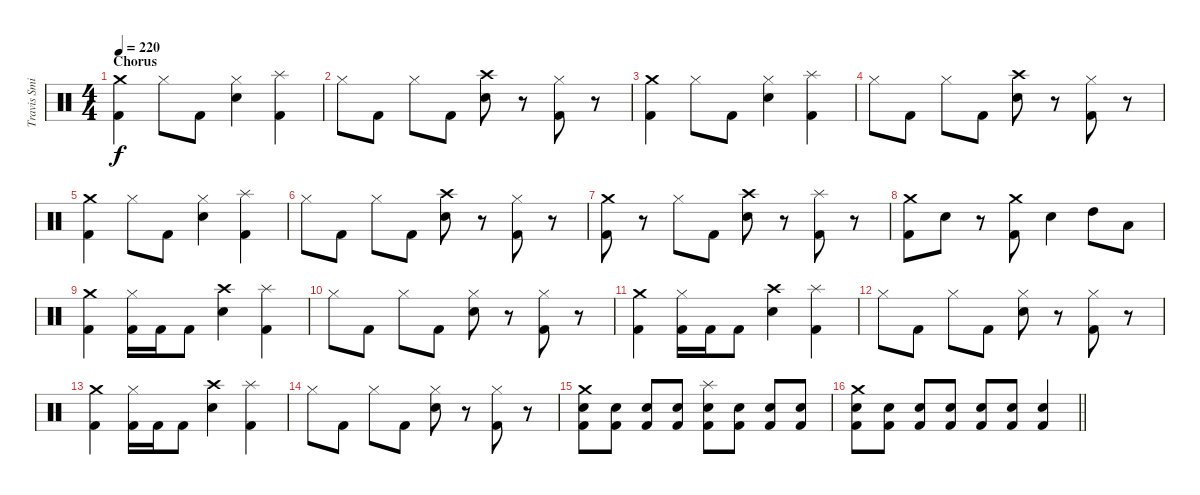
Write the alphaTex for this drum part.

\track ("Travis Smith" "Travis Smi") {instrument percussion}
\staff {score}
\articulation defaults
\ts (4 4)
\section ("" "Chorus")
\tempo 220
\clef neutral
\ks c
("Crash medium (hit)" "Kick (hit) 2").4{dy f} "Hi-Hat (closed)".8 "Kick (hit) 2".8 ("Hi-Hat (closed)" "Electric Snare (hit)").4 ("Splash (hit)" "Kick (hit) 2").4 |
"Hi-Hat (closed)".8 "Kick (hit) 2".8 "Hi-Hat (closed)".8 "Kick (hit) 2".8 ("Crash high (hit)" "Electric Snare (hit)").8 r.8 ("Hi-Hat (closed)" "Kick (hit) 2").8 r.8 |
("Crash medium (hit)" "Kick (hit) 2").4 "Hi-Hat (closed)".8 "Kick (hit) 2".8 ("Hi-Hat (closed)" "Electric Snare (hit)").4 ("Splash (hit)" "Kick (hit) 2").4 |
"Hi-Hat (closed)".8 "Kick (hit) 2".8 "Hi-Hat (closed)".8 "Kick (hit) 2".8 ("Crash high (hit)" "Electric Snare (hit)").8 r.8 ("Hi-Hat (closed)" "Kick (hit) 2").8 r.8 |
("Crash medium (hit)" "Kick (hit) 2").4 "Hi-Hat (closed)".8 "Kick (hit) 2".8 ("Hi-Hat (closed)" "Electric Snare (hit)").4 ("Splash (hit)" "Kick (hit) 2").4 |
"Hi-Hat (closed)".8 "Kick (hit) 2".8 "Hi-Hat (closed)".8 "Kick (hit) 2".8 ("Crash high (hit)" "Electric Snare (hit)").8 r.8 ("Hi-Hat (closed)" "Kick (hit) 2").8 r.8 |
("Crash medium (hit)" "Kick (hit) 2").8 r.8 "Hi-Hat (closed)".8 "Kick (hit) 2".8 ("Crash high (hit)" "Electric Snare (hit)").8 r.8 ("Splash (hit)" "Kick (hit) 2").8 r.8 |
("Crash medium (hit)" "Kick (hit) 2").8 "Electric Snare (hit)".8 r.8 ("Crash medium (hit)" "Kick (hit) 2").8 "Electric Snare (hit)".4 "High Tom (hit)".8 "Low Tom (hit)".8 |
("Crash medium (hit)" "Kick (hit) 2").4 ("Hi-Hat (closed)" "Kick (hit) 2").16 "Kick (hit) 2".16 "Kick (hit) 2".8 ("Crash high (hit)" "Electric Snare (hit)").4 ("Splash (hit)" "Kick (hit) 2").4 |
"Hi-Hat (closed)".8 "Kick (hit) 2".8 "Hi-Hat (closed)".8 "Kick (hit) 2".8 ("Hi-Hat (closed)" "Electric Snare (hit)").8 r.8 ("Hi-Hat (closed)" "Kick (hit) 2").8 r.8 |
("Crash medium (hit)" "Kick (hit) 2").4 ("Hi-Hat (closed)" "Kick (hit) 2").16 "Kick (hit) 2".16 "Kick (hit) 2".8 ("Crash high (hit)" "Electric Snare (hit)").4 ("Splash (hit)" "Kick (hit) 2").4 |
"Hi-Hat (closed)".8 "Kick (hit) 2".8 "Hi-Hat (closed)".8 "Kick (hit) 2".8 ("Hi-Hat (closed)" "Electric Snare (hit)").8 r.8 ("Hi-Hat (closed)" "Kick (hit) 2").8 r.8 |
("Crash medium (hit)" "Kick (hit) 2").4 ("Hi-Hat (closed)" "Kick (hit) 2").16 "Kick (hit) 2".16 "Kick (hit) 2".8 ("Crash high (hit)" "Electric Snare (hit)").4 ("Splash (hit)" "Kick (hit) 2").4 |
"Hi-Hat (closed)".8 "Kick (hit) 2".8 "Hi-Hat (closed)".8 "Kick (hit) 2".8 ("Hi-Hat (closed)" "Electric Snare (hit)").8 r.8 ("Hi-Hat (closed)" "Kick (hit) 2").8 r.8 |
("Crash medium (hit)" "Snare (hit) 2" "Kick (hit) 2").8 ("Snare (hit) 2" "Kick (hit) 2").8 ("Snare (hit) 2" "Kick (hit) 2").8 ("Snare (hit) 2" "Kick (hit) 2").8 ("Splash (hit)" "Electric Snare (hit)" "Kick (hit) 2").8 ("Electric Snare (hit)" "Kick (hit) 2").8 ("Electric Snare (hit)" "Kick (hit) 2").8 ("Electric Snare (hit)" "Kick (hit) 2").8 |
\barLineRight lightlight
("Crash medium (hit)" "Electric Snare (hit)" "Kick (hit) 2").8 ("Electric Snare (hit)" "Kick (hit) 2").8 ("Electric Snare (hit)" "Kick (hit) 2").8 ("Electric Snare (hit)" "Kick (hit) 2").8 ("Electric Snare (hit)" "Kick (hit) 2").8 ("Electric Snare (hit)" "Kick (hit) 2").8 ("Electric Snare (hit)" "Kick (hit) 2").4
